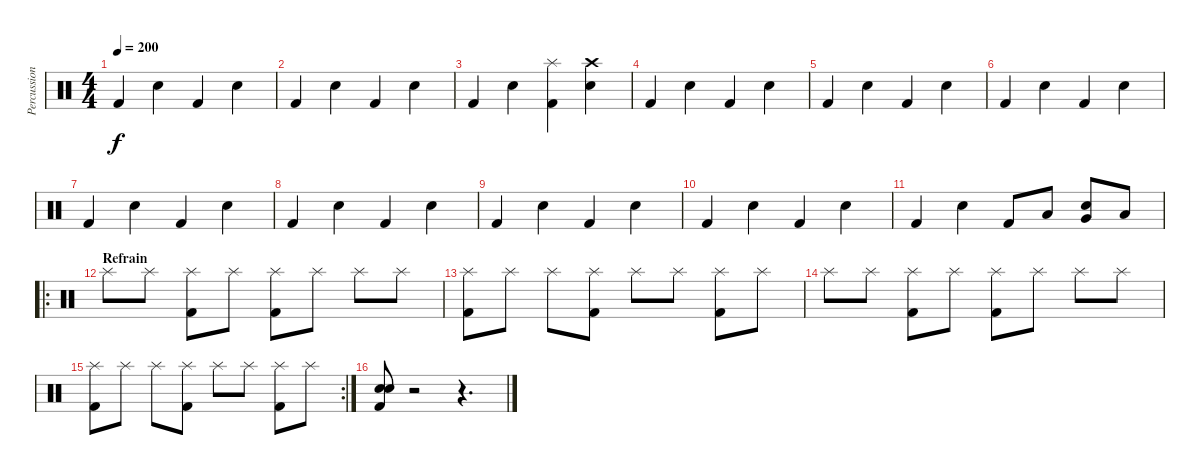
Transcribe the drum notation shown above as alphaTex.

\track ("Percussion" "Percussion") {instrument percussion}
\staff {score}
\articulation defaults
\ts (4 4)
\tempo 200
\clef neutral
\ks c "Kick (hit) 2".4{dy f} "Electric Snare (hit)".4 "Kick (hit) 2".4 "Electric Snare (hit)".4
|
"Kick (hit) 2".4 "Electric Snare (hit)".4 "Kick (hit) 2".4 "Electric Snare (hit)".4 |
"Kick (hit) 2".4 "Electric Snare (hit)".4 ("Splash (hit)" "Kick (hit) 2").4 ("Crash high (hit)" "Electric Snare (hit)").4 |
"Kick (hit) 2".4 "Electric Snare (hit)".4 "Kick (hit) 2".4 "Electric Snare (hit)".4 |
"Kick (hit) 2".4 "Electric Snare (hit)".4 "Kick (hit) 2".4 "Electric Snare (hit)".4 |
"Kick (hit) 2".4 "Electric Snare (hit)".4 "Kick (hit) 2".4 "Electric Snare (hit)".4 |
"Kick (hit) 2".4 "Electric Snare (hit)".4 "Kick (hit) 2".4 "Electric Snare (hit)".4 |
"Kick (hit) 2".4 "Electric Snare (hit)".4 "Kick (hit) 2".4 "Electric Snare (hit)".4 |
"Kick (hit) 2".4 "Electric Snare (hit)".4 "Kick (hit) 2".4 "Electric Snare (hit)".4 |
"Kick (hit) 2".4 "Electric Snare (hit)".4 "Kick (hit) 2".4 "Electric Snare (hit)".4 |
"Kick (hit) 2".4 "Electric Snare (hit)".4 "Kick (hit) 2".8 "Low Tom (hit)".8 ("Electric Snare (hit)" "Very Low Tom (hit)").8 "Low Floor Tom (hit)".8 |
\ro
\section ("" "Refrain")
"Splash (hit)".8 "Splash (hit)".8 ("Splash (hit)" "Kick (hit) 2").8 "Splash (hit)".8 ("Splash (hit)" "Kick (hit) 2").8 "Splash (hit)".8 "Splash (hit)".8 "Splash (hit)".8 |
("Splash (hit)" "Kick (hit) 2").8 "Splash (hit)".8 "Splash (hit)".8 ("Splash (hit)" "Kick (hit) 2").8 "Splash (hit)".8 "Splash (hit)".8 ("Splash (hit)" "Kick (hit) 2").8 "Splash (hit)".8 |
"Splash (hit)".8 "Splash (hit)".8 ("Splash (hit)" "Kick (hit) 2").8 "Splash (hit)".8 ("Splash (hit)" "Kick (hit) 2").8 "Splash (hit)".8 "Splash (hit)".8 "Splash (hit)".8 |
\rc 2
("Splash (hit)" "Kick (hit) 2").8 "Splash (hit)".8 "Splash (hit)".8 ("Splash (hit)" "Kick (hit) 2").8 "Splash (hit)".8 "Splash (hit)".8 ("Splash (hit)" "Kick (hit) 2").8 "Splash (hit)".8 |
("Electric Snare (hit)" "Snare (hit) 2" "Kick (hit) 2").8 r.2 r.4{d}
